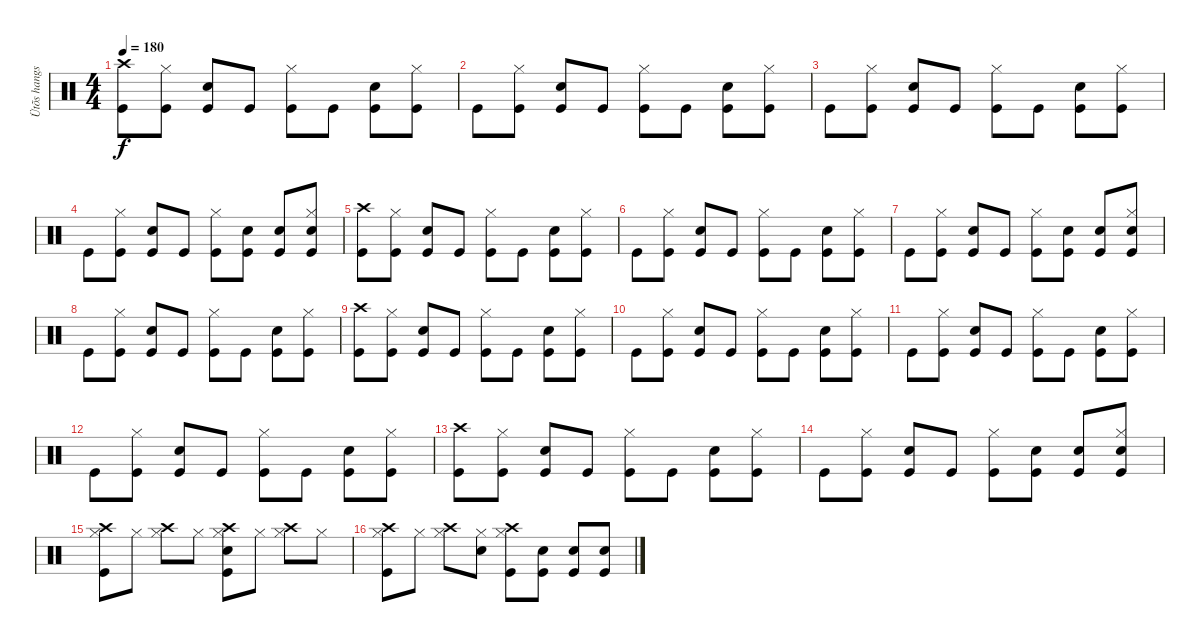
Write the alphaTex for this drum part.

\track ("Ütõs hangszer" "Ütõs hangs") {instrument percussion}
\staff {score}
\articulation defaults
\ts (4 4)
\tempo 180
\clef neutral
\ks c
("Crash high (hit)" "Kick (hit)").8{dy f} ("Hi-Hat (closed)" "Kick (hit)").8 ("Electric Snare (hit)" "Kick (hit)").8 "Kick (hit)".8 ("Hi-Hat (closed)" "Kick (hit)").8 "Kick (hit)".8 ("Electric Snare (hit)" "Kick (hit)").8 ("Hi-Hat (closed)" "Kick (hit)").8 |
"Kick (hit)".8 ("Hi-Hat (closed)" "Kick (hit)").8 ("Electric Snare (hit)" "Kick (hit)").8 "Kick (hit)".8 ("Hi-Hat (closed)" "Kick (hit)").8 "Kick (hit)".8 ("Electric Snare (hit)" "Kick (hit)").8 ("Hi-Hat (closed)" "Kick (hit)").8 |
"Kick (hit)".8 ("Hi-Hat (closed)" "Kick (hit)").8 ("Electric Snare (hit)" "Kick (hit)").8 "Kick (hit)".8 ("Hi-Hat (closed)" "Kick (hit)").8 "Kick (hit)".8 ("Electric Snare (hit)" "Kick (hit)").8 ("Hi-Hat (closed)" "Kick (hit)").8 |
"Kick (hit)".8 ("Hi-Hat (closed)" "Kick (hit)").8 ("Electric Snare (hit)" "Kick (hit)").8 "Kick (hit)".8 ("Hi-Hat (closed)" "Kick (hit)").8 ("Electric Snare (hit)" "Kick (hit)").8 ("Electric Snare (hit)" "Kick (hit)").8 ("Hi-Hat (closed)" "Electric Snare (hit)" "Kick (hit)").8 |
("Crash high (hit)" "Kick (hit)").8 ("Hi-Hat (closed)" "Kick (hit)").8 ("Electric Snare (hit)" "Kick (hit)").8 "Kick (hit)".8 ("Hi-Hat (closed)" "Kick (hit)").8 "Kick (hit)".8 ("Electric Snare (hit)" "Kick (hit)").8 ("Hi-Hat (closed)" "Kick (hit)").8 |
"Kick (hit)".8 ("Hi-Hat (closed)" "Kick (hit)").8 ("Electric Snare (hit)" "Kick (hit)").8 "Kick (hit)".8 ("Hi-Hat (closed)" "Kick (hit)").8 "Kick (hit)".8 ("Electric Snare (hit)" "Kick (hit)").8 ("Hi-Hat (closed)" "Kick (hit)").8 |
"Kick (hit)".8 ("Hi-Hat (closed)" "Kick (hit)").8 ("Electric Snare (hit)" "Kick (hit)").8 "Kick (hit)".8 ("Hi-Hat (closed)" "Kick (hit)").8 ("Electric Snare (hit)" "Kick (hit)").8 ("Electric Snare (hit)" "Kick (hit)").8 ("Hi-Hat (closed)" "Electric Snare (hit)" "Kick (hit)").8 |
"Kick (hit)".8 ("Hi-Hat (closed)" "Kick (hit)").8 ("Electric Snare (hit)" "Kick (hit)").8 "Kick (hit)".8 ("Hi-Hat (closed)" "Kick (hit)").8 "Kick (hit)".8 ("Electric Snare (hit)" "Kick (hit)").8 ("Hi-Hat (closed)" "Kick (hit)").8 |
("Crash high (hit)" "Kick (hit)").8 ("Hi-Hat (closed)" "Kick (hit)").8 ("Electric Snare (hit)" "Kick (hit)").8 "Kick (hit)".8 ("Hi-Hat (closed)" "Kick (hit)").8 "Kick (hit)".8 ("Electric Snare (hit)" "Kick (hit)").8 ("Hi-Hat (closed)" "Kick (hit)").8 |
"Kick (hit)".8 ("Hi-Hat (closed)" "Kick (hit)").8 ("Electric Snare (hit)" "Kick (hit)").8 "Kick (hit)".8 ("Hi-Hat (closed)" "Kick (hit)").8 "Kick (hit)".8 ("Electric Snare (hit)" "Kick (hit)").8 ("Hi-Hat (closed)" "Kick (hit)").8 |
"Kick (hit)".8 ("Hi-Hat (closed)" "Kick (hit)").8 ("Electric Snare (hit)" "Kick (hit)").8 "Kick (hit)".8 ("Hi-Hat (closed)" "Kick (hit)").8 "Kick (hit)".8 ("Electric Snare (hit)" "Kick (hit)").8 ("Hi-Hat (closed)" "Kick (hit)").8 |
"Kick (hit)".8 ("Hi-Hat (closed)" "Kick (hit)").8 ("Electric Snare (hit)" "Kick (hit)").8 "Kick (hit)".8 ("Hi-Hat (closed)" "Kick (hit)").8 "Kick (hit)".8 ("Electric Snare (hit)" "Kick (hit)").8 ("Hi-Hat (closed)" "Kick (hit)").8 |
("Crash high (hit)" "Kick (hit)").8 ("Hi-Hat (closed)" "Kick (hit)").8 ("Electric Snare (hit)" "Kick (hit)").8 "Kick (hit)".8 ("Hi-Hat (closed)" "Kick (hit)").8 "Kick (hit)".8 ("Electric Snare (hit)" "Kick (hit)").8 ("Hi-Hat (closed)" "Kick (hit)").8 |
"Kick (hit)".8 ("Hi-Hat (closed)" "Kick (hit)").8 ("Electric Snare (hit)" "Kick (hit)").8 "Kick (hit)".8 ("Hi-Hat (closed)" "Kick (hit)").8 ("Electric Snare (hit)" "Kick (hit)").8 ("Electric Snare (hit)" "Kick (hit)").8 ("Hi-Hat (closed)" "Electric Snare (hit)" "Kick (hit)").8 |
("Hi-Hat (closed)" "Crash high (hit)" "Kick (hit)").8 "Hi-Hat (closed)".8 ("Hi-Hat (closed)" "Crash high (hit)").8 "Hi-Hat (closed)".8 ("Hi-Hat (closed)" "Electric Snare (hit)" "Crash high (hit)" "Kick (hit)").8 "Hi-Hat (closed)".8 ("Hi-Hat (closed)" "Crash high (hit)").8 "Hi-Hat (closed)".8 |
("Hi-Hat (closed)" "Crash high (hit)" "Kick (hit)").8 "Hi-Hat (closed)".8 ("Hi-Hat (closed)" "Crash high (hit)").8 ("Hi-Hat (closed)" "Electric Snare (hit)").8 ("Hi-Hat (closed)" "Crash high (hit)" "Kick (hit)").8 ("Electric Snare (hit)" "Kick (hit)").8 ("Electric Snare (hit)" "Kick (hit)").8 ("Electric Snare (hit)" "Kick (hit)").8
